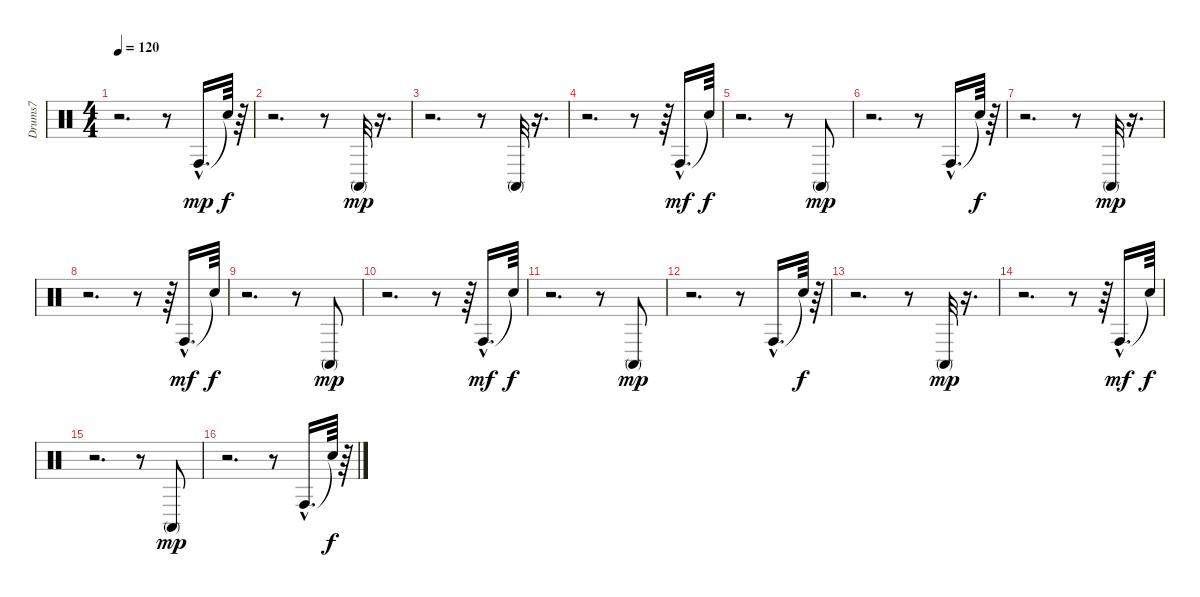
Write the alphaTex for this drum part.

\track ("Drums7" "Drums7") {instrument percussion}
\staff {score}
\articulation defaults
\ts (4 4)
\tempo 120
\clef neutral
\ks c
r.2{d dy mp} r.8 "Conga high (hit)"{hac}.16{d} "Snare (hit)"{t}.64{dy f} r.64 |
r.2{d} r.8 "Conga high (mute)".32{dy mp} r.16{d} |
r.2{d} r.8 "Conga high (mute)".32 r.16{d} |
r.2{d} r.8 r.64 "Conga high (hit)"{hac}.16{d dy mf} "Snare (hit)"{t}.64{dy f} |
r.2{d} r.8 "Conga high (mute)".8{dy mp} |
r.2{d} r.8 "Conga high (hit)"{hac}.16{d} "Snare (hit)"{t}.64{dy f} r.64 |
r.2{d} r.8 "Conga high (mute)".32{dy mp} r.16{d} |
r.2{d} r.8 r.64 "Conga high (hit)"{hac}.16{d dy mf} "Snare (hit)"{t}.64{dy f} |
r.2{d} r.8 "Conga high (mute)".8{dy mp} |
r.2{d} r.8 r.64 "Conga high (hit)"{hac}.16{d dy mf} "Snare (hit)"{t}.64{dy f} |
r.2{d} r.8 "Conga high (mute)".8{dy mp} |
r.2{d} r.8 "Conga high (hit)"{hac}.16{d} "Snare (hit)"{t}.64{dy f} r.64 |
r.2{d} r.8 "Conga high (mute)".32{dy mp} r.16{d} |
r.2{d} r.8 r.64 "Conga high (hit)"{hac}.16{d dy mf} "Snare (hit)"{t}.64{dy f} |
r.2{d} r.8 "Conga high (mute)".8{dy mp} |
r.2{d} r.8 "Conga high (hit)"{hac}.16{d} "Snare (hit)"{t}.64{dy f} r.64
